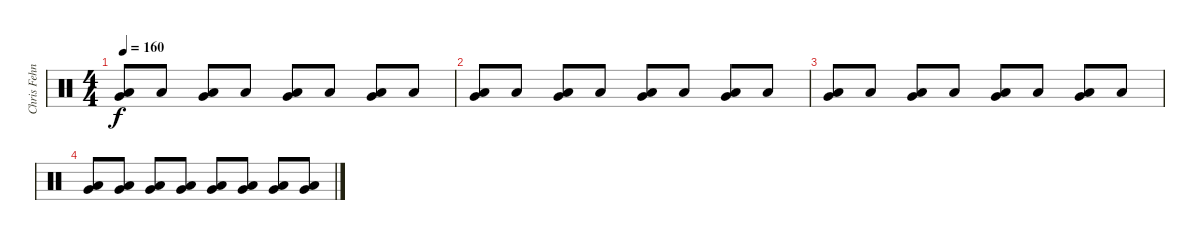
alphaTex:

\track ("Chris Fehn" "Chris Fehn") {instrument percussion}
\staff {score}
\articulation defaults
\ts (4 4)
\tempo 160
\clef neutral
\ks c
("Very Low Tom (hit)" "Low Floor Tom (hit)").8{dy f} "Low Floor Tom (hit)".8 ("Very Low Tom (hit)" "Low Floor Tom (hit)").8 "Low Floor Tom (hit)".8 ("Very Low Tom (hit)" "Low Floor Tom (hit)").8 "Low Floor Tom (hit)".8 ("Very Low Tom (hit)" "Low Floor Tom (hit)").8 "Low Floor Tom (hit)".8 |
("Very Low Tom (hit)" "Low Floor Tom (hit)").8 "Low Floor Tom (hit)".8 ("Very Low Tom (hit)" "Low Floor Tom (hit)").8 "Low Floor Tom (hit)".8 ("Very Low Tom (hit)" "Low Floor Tom (hit)").8 "Low Floor Tom (hit)".8 ("Very Low Tom (hit)" "Low Floor Tom (hit)").8 "Low Floor Tom (hit)".8 |
("Very Low Tom (hit)" "Low Floor Tom (hit)").8 "Low Floor Tom (hit)".8 ("Very Low Tom (hit)" "Low Floor Tom (hit)").8 "Low Floor Tom (hit)".8 ("Very Low Tom (hit)" "Low Floor Tom (hit)").8 "Low Floor Tom (hit)".8 ("Very Low Tom (hit)" "Low Floor Tom (hit)").8 "Low Floor Tom (hit)".8 |
("Very Low Tom (hit)" "Low Floor Tom (hit)").8 ("Very Low Tom (hit)" "Low Floor Tom (hit)").8 ("Very Low Tom (hit)" "Low Floor Tom (hit)").8 ("Very Low Tom (hit)" "Low Floor Tom (hit)").8 ("Very Low Tom (hit)" "Low Floor Tom (hit)").8 ("Very Low Tom (hit)" "Low Floor Tom (hit)").8 ("Very Low Tom (hit)" "Low Floor Tom (hit)").8 ("Very Low Tom (hit)" "Low Floor Tom (hit)").8
